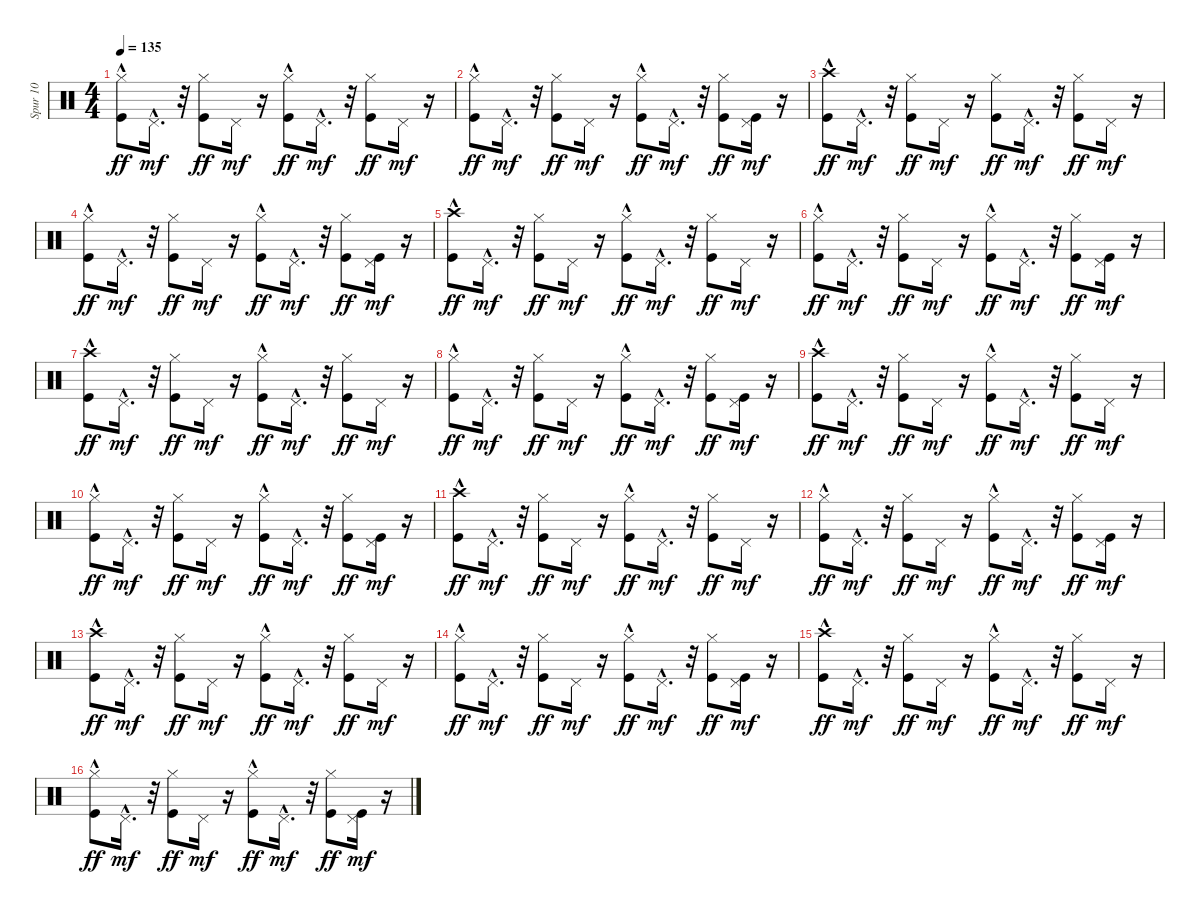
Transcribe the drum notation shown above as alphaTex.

\track ("Spur 10" "Spur 10") {instrument percussion}
\staff {score}
\articulation defaults
\ts (4 4)
\tempo 135
\clef neutral
\ks c
("Hi-Hat (closed)"{hac} "Kick (hit)").8{dy ff} "Pedal Hi-Hat (hit)"{hac}.16{d dy mf} r.32 ("Hi-Hat (closed)" "Kick (hit)").8{dy ff} "Pedal Hi-Hat (hit)".16{dy mf} r.16 ("Hi-Hat (closed)"{hac} "Kick (hit)").8{dy ff} "Pedal Hi-Hat (hit)"{hac}.16{d dy mf} r.32 ("Hi-Hat (closed)" "Kick (hit)").8{dy ff} "Pedal Hi-Hat (hit)".16{dy mf} r.16 |
("Hi-Hat (closed)"{hac} "Kick (hit)").8{dy ff} "Pedal Hi-Hat (hit)"{hac}.16{d dy mf} r.32 ("Hi-Hat (closed)" "Kick (hit)").8{dy ff} "Pedal Hi-Hat (hit)".16{dy mf} r.16 ("Hi-Hat (closed)"{hac} "Kick (hit)").8{dy ff} "Pedal Hi-Hat (hit)"{hac}.16{d dy mf} r.32 ("Hi-Hat (closed)" "Kick (hit)").8{dy ff} ("Kick (hit)" "Pedal Hi-Hat (hit)").16{dy mf} r.16 |
("Crash high (hit)"{hac} "Kick (hit)").8{dy ff} "Pedal Hi-Hat (hit)"{hac}.16{d dy mf} r.32 ("Hi-Hat (closed)" "Kick (hit)").8{dy ff} "Pedal Hi-Hat (hit)".16{dy mf} r.16 ("Hi-Hat (closed)" "Kick (hit)").8{dy ff} "Pedal Hi-Hat (hit)"{hac}.16{d dy mf} r.32 ("Hi-Hat (closed)" "Kick (hit)").8{dy ff} "Pedal Hi-Hat (hit)".16{dy mf} r.16 |
("Hi-Hat (closed)"{hac} "Kick (hit)").8{dy ff} "Pedal Hi-Hat (hit)"{hac}.16{d dy mf} r.32 ("Hi-Hat (closed)" "Kick (hit)").8{dy ff} "Pedal Hi-Hat (hit)".16{dy mf} r.16 ("Hi-Hat (closed)"{hac} "Kick (hit)").8{dy ff} "Pedal Hi-Hat (hit)"{hac}.16{d dy mf} r.32 ("Hi-Hat (closed)" "Kick (hit)").8{dy ff} ("Kick (hit)" "Pedal Hi-Hat (hit)").16{dy mf} r.16 |
("Crash high (hit)"{hac} "Kick (hit)").8{dy ff} "Pedal Hi-Hat (hit)"{hac}.16{d dy mf} r.32 ("Hi-Hat (closed)" "Kick (hit)").8{dy ff} "Pedal Hi-Hat (hit)".16{dy mf} r.16 ("Hi-Hat (closed)"{hac} "Kick (hit)").8{dy ff} "Pedal Hi-Hat (hit)"{hac}.16{d dy mf} r.32 ("Hi-Hat (closed)" "Kick (hit)").8{dy ff} "Pedal Hi-Hat (hit)".16{dy mf} r.16 |
("Hi-Hat (closed)"{hac} "Kick (hit)").8{dy ff} "Pedal Hi-Hat (hit)"{hac}.16{d dy mf} r.32 ("Hi-Hat (closed)" "Kick (hit)").8{dy ff} "Pedal Hi-Hat (hit)".16{dy mf} r.16 ("Hi-Hat (closed)"{hac} "Kick (hit)").8{dy ff} "Pedal Hi-Hat (hit)"{hac}.16{d dy mf} r.32 ("Hi-Hat (closed)" "Kick (hit)").8{dy ff} ("Kick (hit)" "Pedal Hi-Hat (hit)").16{dy mf} r.16 |
("Crash high (hit)"{hac} "Kick (hit)").8{dy ff} "Pedal Hi-Hat (hit)"{hac}.16{d dy mf} r.32 ("Hi-Hat (closed)" "Kick (hit)").8{dy ff} "Pedal Hi-Hat (hit)".16{dy mf} r.16 ("Hi-Hat (closed)"{hac} "Kick (hit)").8{dy ff} "Pedal Hi-Hat (hit)"{hac}.16{d dy mf} r.32 ("Hi-Hat (closed)" "Kick (hit)").8{dy ff} "Pedal Hi-Hat (hit)".16{dy mf} r.16 |
("Hi-Hat (closed)"{hac} "Kick (hit)").8{dy ff} "Pedal Hi-Hat (hit)"{hac}.16{d dy mf} r.32 ("Hi-Hat (closed)" "Kick (hit)").8{dy ff} "Pedal Hi-Hat (hit)".16{dy mf} r.16 ("Hi-Hat (closed)"{hac} "Kick (hit)").8{dy ff} "Pedal Hi-Hat (hit)"{hac}.16{d dy mf} r.32 ("Hi-Hat (closed)" "Kick (hit)").8{dy ff} ("Kick (hit)" "Pedal Hi-Hat (hit)").16{dy mf} r.16 |
("Crash high (hit)"{hac} "Kick (hit)").8{dy ff} "Pedal Hi-Hat (hit)"{hac}.16{d dy mf} r.32 ("Hi-Hat (closed)" "Kick (hit)").8{dy ff} "Pedal Hi-Hat (hit)".16{dy mf} r.16 ("Hi-Hat (closed)"{hac} "Kick (hit)").8{dy ff} "Pedal Hi-Hat (hit)"{hac}.16{d dy mf} r.32 ("Hi-Hat (closed)" "Kick (hit)").8{dy ff} "Pedal Hi-Hat (hit)".16{dy mf} r.16 |
("Hi-Hat (closed)"{hac} "Kick (hit)").8{dy ff} "Pedal Hi-Hat (hit)"{hac}.16{d dy mf} r.32 ("Hi-Hat (closed)" "Kick (hit)").8{dy ff} "Pedal Hi-Hat (hit)".16{dy mf} r.16 ("Hi-Hat (closed)"{hac} "Kick (hit)").8{dy ff} "Pedal Hi-Hat (hit)"{hac}.16{d dy mf} r.32 ("Hi-Hat (closed)" "Kick (hit)").8{dy ff} ("Kick (hit)" "Pedal Hi-Hat (hit)").16{dy mf} r.16 |
("Crash high (hit)"{hac} "Kick (hit)").8{dy ff} "Pedal Hi-Hat (hit)"{hac}.16{d dy mf} r.32 ("Hi-Hat (closed)" "Kick (hit)").8{dy ff} "Pedal Hi-Hat (hit)".16{dy mf} r.16 ("Hi-Hat (closed)"{hac} "Kick (hit)").8{dy ff} "Pedal Hi-Hat (hit)"{hac}.16{d dy mf} r.32 ("Hi-Hat (closed)" "Kick (hit)").8{dy ff} "Pedal Hi-Hat (hit)".16{dy mf} r.16 |
("Hi-Hat (closed)"{hac} "Kick (hit)").8{dy ff} "Pedal Hi-Hat (hit)"{hac}.16{d dy mf} r.32 ("Hi-Hat (closed)" "Kick (hit)").8{dy ff} "Pedal Hi-Hat (hit)".16{dy mf} r.16 ("Hi-Hat (closed)"{hac} "Kick (hit)").8{dy ff} "Pedal Hi-Hat (hit)"{hac}.16{d dy mf} r.32 ("Hi-Hat (closed)" "Kick (hit)").8{dy ff} ("Kick (hit)" "Pedal Hi-Hat (hit)").16{dy mf} r.16 |
("Crash high (hit)"{hac} "Kick (hit)").8{dy ff} "Pedal Hi-Hat (hit)"{hac}.16{d dy mf} r.32 ("Hi-Hat (closed)" "Kick (hit)").8{dy ff} "Pedal Hi-Hat (hit)".16{dy mf} r.16 ("Hi-Hat (closed)"{hac} "Kick (hit)").8{dy ff} "Pedal Hi-Hat (hit)"{hac}.16{d dy mf} r.32 ("Hi-Hat (closed)" "Kick (hit)").8{dy ff} "Pedal Hi-Hat (hit)".16{dy mf} r.16 |
("Hi-Hat (closed)"{hac} "Kick (hit)").8{dy ff} "Pedal Hi-Hat (hit)"{hac}.16{d dy mf} r.32 ("Hi-Hat (closed)" "Kick (hit)").8{dy ff} "Pedal Hi-Hat (hit)".16{dy mf} r.16 ("Hi-Hat (closed)"{hac} "Kick (hit)").8{dy ff} "Pedal Hi-Hat (hit)"{hac}.16{d dy mf} r.32 ("Hi-Hat (closed)" "Kick (hit)").8{dy ff} ("Kick (hit)" "Pedal Hi-Hat (hit)").16{dy mf} r.16 |
("Crash high (hit)"{hac} "Kick (hit)").8{dy ff} "Pedal Hi-Hat (hit)"{hac}.16{d dy mf} r.32 ("Hi-Hat (closed)" "Kick (hit)").8{dy ff} "Pedal Hi-Hat (hit)".16{dy mf} r.16 ("Hi-Hat (closed)"{hac} "Kick (hit)").8{dy ff} "Pedal Hi-Hat (hit)"{hac}.16{d dy mf} r.32 ("Hi-Hat (closed)" "Kick (hit)").8{dy ff} "Pedal Hi-Hat (hit)".16{dy mf} r.16 |
("Hi-Hat (closed)"{hac} "Kick (hit)").8{dy ff} "Pedal Hi-Hat (hit)"{hac}.16{d dy mf} r.32 ("Hi-Hat (closed)" "Kick (hit)").8{dy ff} "Pedal Hi-Hat (hit)".16{dy mf} r.16 ("Hi-Hat (closed)"{hac} "Kick (hit)").8{dy ff} "Pedal Hi-Hat (hit)"{hac}.16{d dy mf} r.32 ("Hi-Hat (closed)" "Kick (hit)").8{dy ff} ("Kick (hit)" "Pedal Hi-Hat (hit)").16{dy mf} r.16
